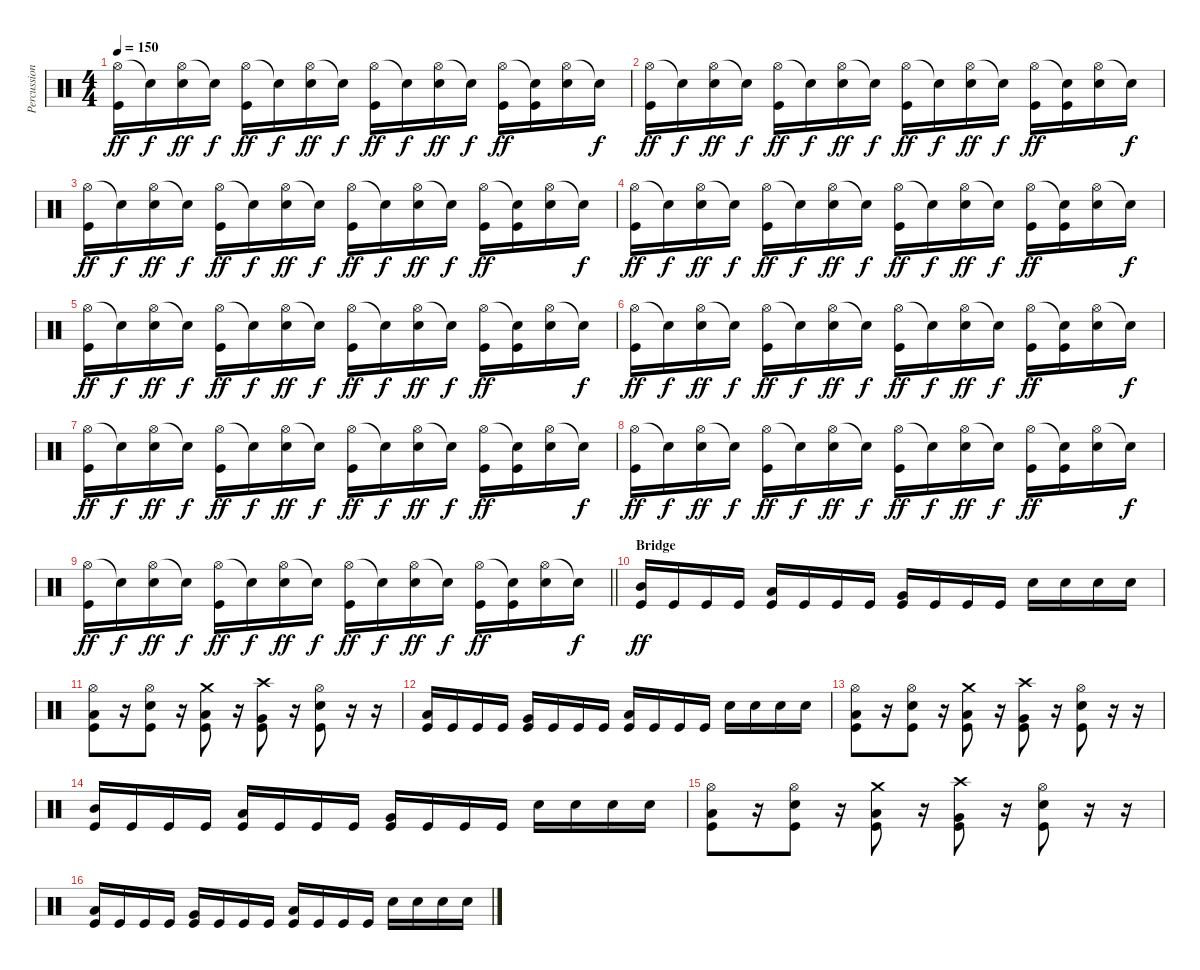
\track ("Percussion" "Percussion") {instrument percussion}
\staff {score}
\articulation defaults
\ts (4 4)
\tempo 150
\clef neutral
\ks c
("Hi-Hat (open)" "Kick (hit)").16{dy ff} "Snare (hit)"{t}.16{dy f} ("Hi-Hat (open)" "Electric Snare (hit)").16{dy ff} "Snare (hit)"{t}.16{dy f} ("Hi-Hat (open)" "Kick (hit)").16{dy ff} "Snare (hit)"{t}.16{dy f} ("Hi-Hat (open)" "Electric Snare (hit)").16{dy ff} "Snare (hit)"{t}.16{dy f} ("Hi-Hat (open)" "Kick (hit)").16{dy ff} "Snare (hit)"{t}.16{dy f} ("Hi-Hat (open)" "Electric Snare (hit)").16{dy ff} "Snare (hit)"{t}.16{dy f} ("Hi-Hat (open)" "Kick (hit)").16{dy ff} ("Snare (hit)"{t} "Kick (hit)").16 ("Hi-Hat (open)" "Electric Snare (hit)").16 "Snare (hit)"{t}.16{dy f} |
("Hi-Hat (open)" "Kick (hit)").16{dy ff} "Snare (hit)"{t}.16{dy f} ("Hi-Hat (open)" "Electric Snare (hit)").16{dy ff} "Snare (hit)"{t}.16{dy f} ("Hi-Hat (open)" "Kick (hit)").16{dy ff} "Snare (hit)"{t}.16{dy f} ("Hi-Hat (open)" "Electric Snare (hit)").16{dy ff} "Snare (hit)"{t}.16{dy f} ("Hi-Hat (open)" "Kick (hit)").16{dy ff} "Snare (hit)"{t}.16{dy f} ("Hi-Hat (open)" "Electric Snare (hit)").16{dy ff} "Snare (hit)"{t}.16{dy f} ("Hi-Hat (open)" "Kick (hit)").16{dy ff} ("Snare (hit)"{t} "Kick (hit)").16 ("Hi-Hat (open)" "Electric Snare (hit)").16 "Snare (hit)"{t}.16{dy f} |
("Hi-Hat (open)" "Kick (hit)").16{dy ff} "Snare (hit)"{t}.16{dy f} ("Hi-Hat (open)" "Electric Snare (hit)").16{dy ff} "Snare (hit)"{t}.16{dy f} ("Hi-Hat (open)" "Kick (hit)").16{dy ff} "Snare (hit)"{t}.16{dy f} ("Hi-Hat (open)" "Electric Snare (hit)").16{dy ff} "Snare (hit)"{t}.16{dy f} ("Hi-Hat (open)" "Kick (hit)").16{dy ff} "Snare (hit)"{t}.16{dy f} ("Hi-Hat (open)" "Electric Snare (hit)").16{dy ff} "Snare (hit)"{t}.16{dy f} ("Hi-Hat (open)" "Kick (hit)").16{dy ff} ("Snare (hit)"{t} "Kick (hit)").16 ("Hi-Hat (open)" "Electric Snare (hit)").16 "Snare (hit)"{t}.16{dy f} |
("Hi-Hat (open)" "Kick (hit)").16{dy ff} "Snare (hit)"{t}.16{dy f} ("Hi-Hat (open)" "Electric Snare (hit)").16{dy ff} "Snare (hit)"{t}.16{dy f} ("Hi-Hat (open)" "Kick (hit)").16{dy ff} "Snare (hit)"{t}.16{dy f} ("Hi-Hat (open)" "Electric Snare (hit)").16{dy ff} "Snare (hit)"{t}.16{dy f} ("Hi-Hat (open)" "Kick (hit)").16{dy ff} "Snare (hit)"{t}.16{dy f} ("Hi-Hat (open)" "Electric Snare (hit)").16{dy ff} "Snare (hit)"{t}.16{dy f} ("Hi-Hat (open)" "Kick (hit)").16{dy ff} ("Snare (hit)"{t} "Kick (hit)").16 ("Hi-Hat (open)" "Electric Snare (hit)").16 "Snare (hit)"{t}.16{dy f} |
("Hi-Hat (open)" "Kick (hit)").16{dy ff} "Snare (hit)"{t}.16{dy f} ("Hi-Hat (open)" "Electric Snare (hit)").16{dy ff} "Snare (hit)"{t}.16{dy f} ("Hi-Hat (open)" "Kick (hit)").16{dy ff} "Snare (hit)"{t}.16{dy f} ("Hi-Hat (open)" "Electric Snare (hit)").16{dy ff} "Snare (hit)"{t}.16{dy f} ("Hi-Hat (open)" "Kick (hit)").16{dy ff} "Snare (hit)"{t}.16{dy f} ("Hi-Hat (open)" "Electric Snare (hit)").16{dy ff} "Snare (hit)"{t}.16{dy f} ("Hi-Hat (open)" "Kick (hit)").16{dy ff} ("Snare (hit)"{t} "Kick (hit)").16 ("Hi-Hat (open)" "Electric Snare (hit)").16 "Snare (hit)"{t}.16{dy f} |
("Hi-Hat (open)" "Kick (hit)").16{dy ff} "Snare (hit)"{t}.16{dy f} ("Hi-Hat (open)" "Electric Snare (hit)").16{dy ff} "Snare (hit)"{t}.16{dy f} ("Hi-Hat (open)" "Kick (hit)").16{dy ff} "Snare (hit)"{t}.16{dy f} ("Hi-Hat (open)" "Electric Snare (hit)").16{dy ff} "Snare (hit)"{t}.16{dy f} ("Hi-Hat (open)" "Kick (hit)").16{dy ff} "Snare (hit)"{t}.16{dy f} ("Hi-Hat (open)" "Electric Snare (hit)").16{dy ff} "Snare (hit)"{t}.16{dy f} ("Hi-Hat (open)" "Kick (hit)").16{dy ff} ("Snare (hit)"{t} "Kick (hit)").16 ("Hi-Hat (open)" "Electric Snare (hit)").16 "Snare (hit)"{t}.16{dy f} |
("Hi-Hat (open)" "Kick (hit)").16{dy ff} "Snare (hit)"{t}.16{dy f} ("Hi-Hat (open)" "Electric Snare (hit)").16{dy ff} "Snare (hit)"{t}.16{dy f} ("Hi-Hat (open)" "Kick (hit)").16{dy ff} "Snare (hit)"{t}.16{dy f} ("Hi-Hat (open)" "Electric Snare (hit)").16{dy ff} "Snare (hit)"{t}.16{dy f} ("Hi-Hat (open)" "Kick (hit)").16{dy ff} "Snare (hit)"{t}.16{dy f} ("Hi-Hat (open)" "Electric Snare (hit)").16{dy ff} "Snare (hit)"{t}.16{dy f} ("Hi-Hat (open)" "Kick (hit)").16{dy ff} ("Snare (hit)"{t} "Kick (hit)").16 ("Hi-Hat (open)" "Electric Snare (hit)").16 "Snare (hit)"{t}.16{dy f} |
("Hi-Hat (open)" "Kick (hit)").16{dy ff} "Snare (hit)"{t}.16{dy f} ("Hi-Hat (open)" "Electric Snare (hit)").16{dy ff} "Snare (hit)"{t}.16{dy f} ("Hi-Hat (open)" "Kick (hit)").16{dy ff} "Snare (hit)"{t}.16{dy f} ("Hi-Hat (open)" "Electric Snare (hit)").16{dy ff} "Snare (hit)"{t}.16{dy f} ("Hi-Hat (open)" "Kick (hit)").16{dy ff} "Snare (hit)"{t}.16{dy f} ("Hi-Hat (open)" "Electric Snare (hit)").16{dy ff} "Snare (hit)"{t}.16{dy f} ("Hi-Hat (open)" "Kick (hit)").16{dy ff} ("Snare (hit)"{t} "Kick (hit)").16 ("Hi-Hat (open)" "Electric Snare (hit)").16 "Snare (hit)"{t}.16{dy f} |
\barLineRight lightlight
("Hi-Hat (open)" "Kick (hit)").16{dy ff} "Snare (hit)"{t}.16{dy f} ("Hi-Hat (open)" "Electric Snare (hit)").16{dy ff} "Snare (hit)"{t}.16{dy f} ("Hi-Hat (open)" "Kick (hit)").16{dy ff} "Snare (hit)"{t}.16{dy f} ("Hi-Hat (open)" "Electric Snare (hit)").16{dy ff} "Snare (hit)"{t}.16{dy f} ("Hi-Hat (open)" "Kick (hit)").16{dy ff} "Snare (hit)"{t}.16{dy f} ("Hi-Hat (open)" "Electric Snare (hit)").16{dy ff} "Snare (hit)"{t}.16{dy f} ("Hi-Hat (open)" "Kick (hit)").16{dy ff} ("Snare (hit)"{t} "Kick (hit)").16 ("Hi-Hat (open)" "Electric Snare (hit)").16 "Snare (hit)"{t}.16{dy f} |
\section ("" "Bridge")
("Mid Tom (hit)" "Kick (hit)").16{dy ff} "Kick (hit)".16 "Kick (hit)".16 "Kick (hit)".16 ("Low Tom (hit)" "Kick (hit)").16 "Kick (hit)".16 "Kick (hit)".16 "Kick (hit)".16 ("Very Low Tom (hit)" "Kick (hit)").16 "Kick (hit)".16 "Kick (hit)".16 "Kick (hit)".16 "Electric Snare (hit)".16 "Electric Snare (hit)".16 "Electric Snare (hit)".16 "Electric Snare (hit)".16 |
("Hi-Hat (open)" "Low Floor Tom (hit)" "Kick (hit)").8 r.16 ("Electric Snare (hit)" "Hi-Hat (open)" "Kick (hit)").8 r.16 ("Crash medium (hit)" "Low Tom (hit)" "Kick (hit)").8 r.16 ("Crash high (hit)" "Very Low Tom (hit)" "Kick (hit)").8 r.16 ("Hi-Hat (open)" "Electric Snare (hit)" "Kick (hit)").8 r.16 r.16 |
("Low Tom (hit)" "Kick (hit)").16 "Kick (hit)".16 "Kick (hit)".16 "Kick (hit)".16 ("Very Low Tom (hit)" "Kick (hit)").16 "Kick (hit)".16 "Kick (hit)".16 "Kick (hit)".16 ("Low Floor Tom (hit)" "Kick (hit)").16 "Kick (hit)".16 "Kick (hit)".16 "Kick (hit)".16 "Electric Snare (hit)".16 "Electric Snare (hit)".16 "Electric Snare (hit)".16 "Electric Snare (hit)".16 |
("Hi-Hat (open)" "Low Floor Tom (hit)" "Kick (hit)").8 r.16 ("Electric Snare (hit)" "Hi-Hat (open)" "Kick (hit)").8 r.16 ("Crash medium (hit)" "Low Tom (hit)" "Kick (hit)").8 r.16 ("Crash high (hit)" "Very Low Tom (hit)" "Kick (hit)").8 r.16 ("Hi-Hat (open)" "Electric Snare (hit)" "Kick (hit)").8 r.16 r.16 |
("Mid Tom (hit)" "Kick (hit)").16 "Kick (hit)".16 "Kick (hit)".16 "Kick (hit)".16 ("Low Tom (hit)" "Kick (hit)").16 "Kick (hit)".16 "Kick (hit)".16 "Kick (hit)".16 ("Very Low Tom (hit)" "Kick (hit)").16 "Kick (hit)".16 "Kick (hit)".16 "Kick (hit)".16 "Electric Snare (hit)".16 "Electric Snare (hit)".16 "Electric Snare (hit)".16 "Electric Snare (hit)".16 |
("Hi-Hat (open)" "Low Floor Tom (hit)" "Kick (hit)").8 r.16 ("Electric Snare (hit)" "Hi-Hat (open)" "Kick (hit)").8 r.16 ("Crash medium (hit)" "Low Tom (hit)" "Kick (hit)").8 r.16 ("Crash high (hit)" "Very Low Tom (hit)" "Kick (hit)").8 r.16 ("Hi-Hat (open)" "Electric Snare (hit)" "Kick (hit)").8 r.16 r.16 |
("Low Tom (hit)" "Kick (hit)").16 "Kick (hit)".16 "Kick (hit)".16 "Kick (hit)".16 ("Very Low Tom (hit)" "Kick (hit)").16 "Kick (hit)".16 "Kick (hit)".16 "Kick (hit)".16 ("Low Floor Tom (hit)" "Kick (hit)").16 "Kick (hit)".16 "Kick (hit)".16 "Kick (hit)".16 "Electric Snare (hit)".16 "Electric Snare (hit)".16 "Electric Snare (hit)".16 "Electric Snare (hit)".16
